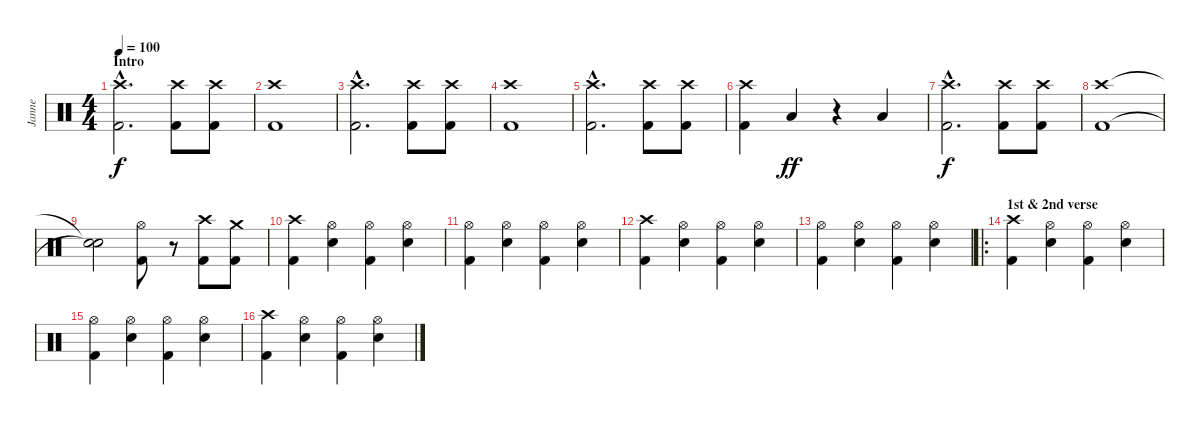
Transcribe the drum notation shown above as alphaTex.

\track ("Janne" "Janne") {instrument percussion}
\staff {score}
\articulation defaults
\ts (4 4)
\section ("" "Intro")
\tempo 100
\clef neutral
\ks c
("Crash high (hit)"{hac} "Kick (hit) 2"{hac}).2{d dy f} ("Crash high (hit)" "Kick (hit) 2").8 ("Crash high (hit)" "Kick (hit) 2").8 |
("Crash high (hit)" "Kick (hit) 2").1 |
("Crash high (hit)"{hac} "Kick (hit) 2"{hac}).2{d} ("Crash high (hit)" "Kick (hit) 2").8 ("Crash high (hit)" "Kick (hit) 2").8 |
("Crash high (hit)" "Kick (hit) 2").1 |
("Crash high (hit)"{hac} "Kick (hit) 2"{hac}).2{d} ("Crash high (hit)" "Kick (hit) 2").8 ("Crash high (hit)" "Kick (hit) 2").8 |
("Crash high (hit)" "Kick (hit) 2").4 "Low Floor Tom (hit)".4{dy ff} r.4 "Low Floor Tom (hit)".4 |
("Crash high (hit)"{hac} "Kick (hit) 2"{hac}).2{d dy f} ("Crash high (hit)" "Kick (hit) 2").8 ("Crash high (hit)" "Kick (hit) 2").8 |
("Crash high (hit)" "Kick (hit) 2").1 |
("Snare (hit)"{t} "Snare (hit)"{t}).2 ("Hi-Hat (open)" "Kick (hit) 2").8 r.8 ("Crash high (hit)" "Kick (hit) 2").8 ("Crash medium (hit)" "Kick (hit) 2").8 |
("Crash high (hit)" "Kick (hit) 2").4 ("Hi-Hat (open)" "Electric Snare (hit)").4 ("Hi-Hat (open)" "Kick (hit) 2").4 ("Hi-Hat (open)" "Electric Snare (hit)").4 |
("Hi-Hat (open)" "Kick (hit) 2").4 ("Hi-Hat (open)" "Electric Snare (hit)").4 ("Hi-Hat (open)" "Kick (hit) 2").4 ("Hi-Hat (open)" "Electric Snare (hit)").4 |
("Crash high (hit)" "Kick (hit) 2").4 ("Hi-Hat (open)" "Electric Snare (hit)").4 ("Hi-Hat (open)" "Kick (hit) 2").4 ("Hi-Hat (open)" "Electric Snare (hit)").4 |
("Hi-Hat (open)" "Kick (hit) 2").4 ("Hi-Hat (open)" "Electric Snare (hit)").4 ("Hi-Hat (open)" "Kick (hit) 2").4 ("Hi-Hat (open)" "Electric Snare (hit)").4 |
\ro
\section ("" "1st & 2nd verse")
("Crash high (hit)" "Kick (hit) 2").4 ("Hi-Hat (open)" "Electric Snare (hit)").4 ("Hi-Hat (open)" "Kick (hit) 2").4 ("Hi-Hat (open)" "Electric Snare (hit)").4 |
("Hi-Hat (open)" "Kick (hit) 2").4 ("Hi-Hat (open)" "Electric Snare (hit)").4 ("Hi-Hat (open)" "Kick (hit) 2").4 ("Hi-Hat (open)" "Electric Snare (hit)").4 |
("Crash high (hit)" "Kick (hit) 2").4 ("Hi-Hat (open)" "Electric Snare (hit)").4 ("Hi-Hat (open)" "Kick (hit) 2").4 ("Hi-Hat (open)" "Electric Snare (hit)").4
